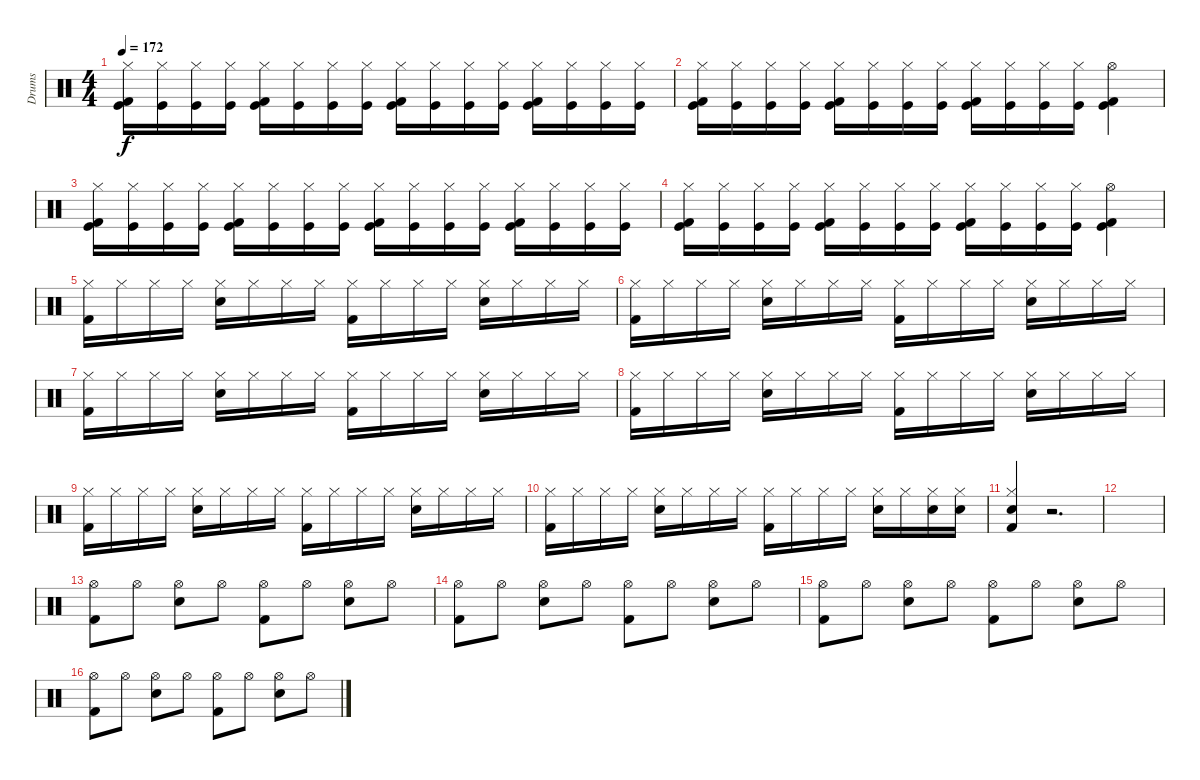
\track ("Drums" "Drums") {instrument percussion}
\staff {score}
\articulation defaults
\ts (4 4)
\tempo 172
\clef neutral
\ks c
("Kick (hit) 2" "Kick (hit)" "Hi-Hat (closed)").16{dy f} ("Kick (hit)" "Hi-Hat (closed)").16 ("Kick (hit)" "Hi-Hat (closed)").16 ("Kick (hit)" "Hi-Hat (closed)").16 ("Kick (hit) 2" "Kick (hit)" "Hi-Hat (closed)").16 ("Kick (hit)" "Hi-Hat (closed)").16 ("Kick (hit)" "Hi-Hat (closed)").16 ("Kick (hit)" "Hi-Hat (closed)").16 ("Kick (hit) 2" "Kick (hit)" "Hi-Hat (closed)").16 ("Kick (hit)" "Hi-Hat (closed)").16 ("Kick (hit)" "Hi-Hat (closed)").16 ("Kick (hit)" "Hi-Hat (closed)").16 ("Kick (hit) 2" "Kick (hit)" "Hi-Hat (closed)").16 ("Kick (hit)" "Hi-Hat (closed)").16 ("Kick (hit)" "Hi-Hat (closed)").16 ("Kick (hit)" "Hi-Hat (closed)").16 |
("Kick (hit) 2" "Kick (hit)" "Hi-Hat (closed)").16 ("Kick (hit)" "Hi-Hat (closed)").16 ("Kick (hit)" "Hi-Hat (closed)").16 ("Kick (hit)" "Hi-Hat (closed)").16 ("Kick (hit) 2" "Kick (hit)" "Hi-Hat (closed)").16 ("Kick (hit)" "Hi-Hat (closed)").16 ("Kick (hit)" "Hi-Hat (closed)").16 ("Kick (hit)" "Hi-Hat (closed)").16 ("Kick (hit) 2" "Kick (hit)" "Hi-Hat (closed)").16 ("Kick (hit)" "Hi-Hat (closed)").16 ("Kick (hit)" "Hi-Hat (closed)").16 ("Kick (hit)" "Hi-Hat (closed)").16 ("Kick (hit) 2" "Kick (hit)" "Hi-Hat (open)").4 |
("Kick (hit) 2" "Kick (hit)" "Hi-Hat (closed)").16 ("Kick (hit)" "Hi-Hat (closed)").16 ("Kick (hit)" "Hi-Hat (closed)").16 ("Kick (hit)" "Hi-Hat (closed)").16 ("Kick (hit) 2" "Kick (hit)" "Hi-Hat (closed)").16 ("Kick (hit)" "Hi-Hat (closed)").16 ("Kick (hit)" "Hi-Hat (closed)").16 ("Kick (hit)" "Hi-Hat (closed)").16 ("Kick (hit) 2" "Kick (hit)" "Hi-Hat (closed)").16 ("Kick (hit)" "Hi-Hat (closed)").16 ("Kick (hit)" "Hi-Hat (closed)").16 ("Kick (hit)" "Hi-Hat (closed)").16 ("Kick (hit) 2" "Kick (hit)" "Hi-Hat (closed)").16 ("Kick (hit)" "Hi-Hat (closed)").16 ("Kick (hit)" "Hi-Hat (closed)").16 ("Kick (hit)" "Hi-Hat (closed)").16 |
("Kick (hit) 2" "Kick (hit)" "Hi-Hat (closed)").16 ("Kick (hit)" "Hi-Hat (closed)").16 ("Kick (hit)" "Hi-Hat (closed)").16 ("Kick (hit)" "Hi-Hat (closed)").16 ("Kick (hit) 2" "Kick (hit)" "Hi-Hat (closed)").16 ("Kick (hit)" "Hi-Hat (closed)").16 ("Kick (hit)" "Hi-Hat (closed)").16 ("Kick (hit)" "Hi-Hat (closed)").16 ("Kick (hit) 2" "Kick (hit)" "Hi-Hat (closed)").16 ("Kick (hit)" "Hi-Hat (closed)").16 ("Kick (hit)" "Hi-Hat (closed)").16 ("Kick (hit)" "Hi-Hat (closed)").16 ("Kick (hit) 2" "Kick (hit)" "Hi-Hat (open)").4 |
("Kick (hit) 2" "Hi-Hat (closed)").16 "Hi-Hat (closed)".16 "Hi-Hat (closed)".16 "Hi-Hat (closed)".16 ("Electric Snare (hit)" "Hi-Hat (closed)").16 "Hi-Hat (closed)".16 "Hi-Hat (closed)".16 "Hi-Hat (closed)".16 ("Kick (hit) 2" "Hi-Hat (closed)").16 "Hi-Hat (closed)".16 "Hi-Hat (closed)".16 "Hi-Hat (closed)".16 ("Electric Snare (hit)" "Hi-Hat (closed)").16 "Hi-Hat (closed)".16 "Hi-Hat (closed)".16 "Hi-Hat (closed)".16 |
("Kick (hit) 2" "Hi-Hat (closed)").16 "Hi-Hat (closed)".16 "Hi-Hat (closed)".16 "Hi-Hat (closed)".16 ("Electric Snare (hit)" "Hi-Hat (closed)").16 "Hi-Hat (closed)".16 "Hi-Hat (closed)".16 "Hi-Hat (closed)".16 ("Kick (hit) 2" "Hi-Hat (closed)").16 "Hi-Hat (closed)".16 "Hi-Hat (closed)".16 "Hi-Hat (closed)".16 ("Electric Snare (hit)" "Hi-Hat (closed)").16 "Hi-Hat (closed)".16 "Hi-Hat (closed)".16 "Hi-Hat (closed)".16 |
("Kick (hit) 2" "Hi-Hat (closed)").16 "Hi-Hat (closed)".16 "Hi-Hat (closed)".16 "Hi-Hat (closed)".16 ("Electric Snare (hit)" "Hi-Hat (closed)").16 "Hi-Hat (closed)".16 "Hi-Hat (closed)".16 "Hi-Hat (closed)".16 ("Kick (hit) 2" "Hi-Hat (closed)").16 "Hi-Hat (closed)".16 "Hi-Hat (closed)".16 "Hi-Hat (closed)".16 ("Electric Snare (hit)" "Hi-Hat (closed)").16 "Hi-Hat (closed)".16 "Hi-Hat (closed)".16 "Hi-Hat (closed)".16 |
("Kick (hit) 2" "Hi-Hat (closed)").16 "Hi-Hat (closed)".16 "Hi-Hat (closed)".16 "Hi-Hat (closed)".16 ("Electric Snare (hit)" "Hi-Hat (closed)").16 "Hi-Hat (closed)".16 "Hi-Hat (closed)".16 "Hi-Hat (closed)".16 ("Kick (hit) 2" "Hi-Hat (closed)").16 "Hi-Hat (closed)".16 "Hi-Hat (closed)".16 "Hi-Hat (closed)".16 ("Electric Snare (hit)" "Hi-Hat (closed)").16 "Hi-Hat (closed)".16 "Hi-Hat (closed)".16 "Hi-Hat (closed)".16 |
("Kick (hit) 2" "Hi-Hat (closed)").16 "Hi-Hat (closed)".16 "Hi-Hat (closed)".16 "Hi-Hat (closed)".16 ("Electric Snare (hit)" "Hi-Hat (closed)").16 "Hi-Hat (closed)".16 "Hi-Hat (closed)".16 "Hi-Hat (closed)".16 ("Kick (hit) 2" "Hi-Hat (closed)").16 "Hi-Hat (closed)".16 "Hi-Hat (closed)".16 "Hi-Hat (closed)".16 ("Electric Snare (hit)" "Hi-Hat (closed)").16 "Hi-Hat (closed)".16 "Hi-Hat (closed)".16 "Hi-Hat (closed)".16 |
("Kick (hit) 2" "Hi-Hat (closed)").16 "Hi-Hat (closed)".16 "Hi-Hat (closed)".16 "Hi-Hat (closed)".16 ("Electric Snare (hit)" "Hi-Hat (closed)").16 "Hi-Hat (closed)".16 "Hi-Hat (closed)".16 "Hi-Hat (closed)".16 ("Kick (hit) 2" "Hi-Hat (closed)").16 "Hi-Hat (closed)".16 "Hi-Hat (closed)".16 "Hi-Hat (closed)".16 ("Electric Snare (hit)" "Hi-Hat (closed)").16 "Hi-Hat (closed)".16 ("Electric Snare (hit)" "Hi-Hat (closed)").16 ("Electric Snare (hit)" "Hi-Hat (closed)").16 |
("Kick (hit) 2" "Electric Snare (hit)" "Hi-Hat (closed)").4 r.2{d} |
|
("Kick (hit) 2" "Hi-Hat (open)").8 "Hi-Hat (open)".8 ("Electric Snare (hit)" "Hi-Hat (open)").8 "Hi-Hat (open)".8 ("Kick (hit) 2" "Hi-Hat (open)").8 "Hi-Hat (open)".8 ("Electric Snare (hit)" "Hi-Hat (open)").8 "Hi-Hat (open)".8 |
("Kick (hit) 2" "Hi-Hat (open)").8 "Hi-Hat (open)".8 ("Electric Snare (hit)" "Hi-Hat (open)").8 "Hi-Hat (open)".8 ("Kick (hit) 2" "Hi-Hat (open)").8 "Hi-Hat (open)".8 ("Electric Snare (hit)" "Hi-Hat (open)").8 "Hi-Hat (open)".8 |
("Kick (hit) 2" "Hi-Hat (open)").8 "Hi-Hat (open)".8 ("Electric Snare (hit)" "Hi-Hat (open)").8 "Hi-Hat (open)".8 ("Kick (hit) 2" "Hi-Hat (open)").8 "Hi-Hat (open)".8 ("Electric Snare (hit)" "Hi-Hat (open)").8 "Hi-Hat (open)".8 |
("Kick (hit) 2" "Hi-Hat (open)").8 "Hi-Hat (open)".8 ("Electric Snare (hit)" "Hi-Hat (open)").8 "Hi-Hat (open)".8 ("Kick (hit) 2" "Hi-Hat (open)").8 "Hi-Hat (open)".8 ("Electric Snare (hit)" "Hi-Hat (open)").8 "Hi-Hat (open)".8
